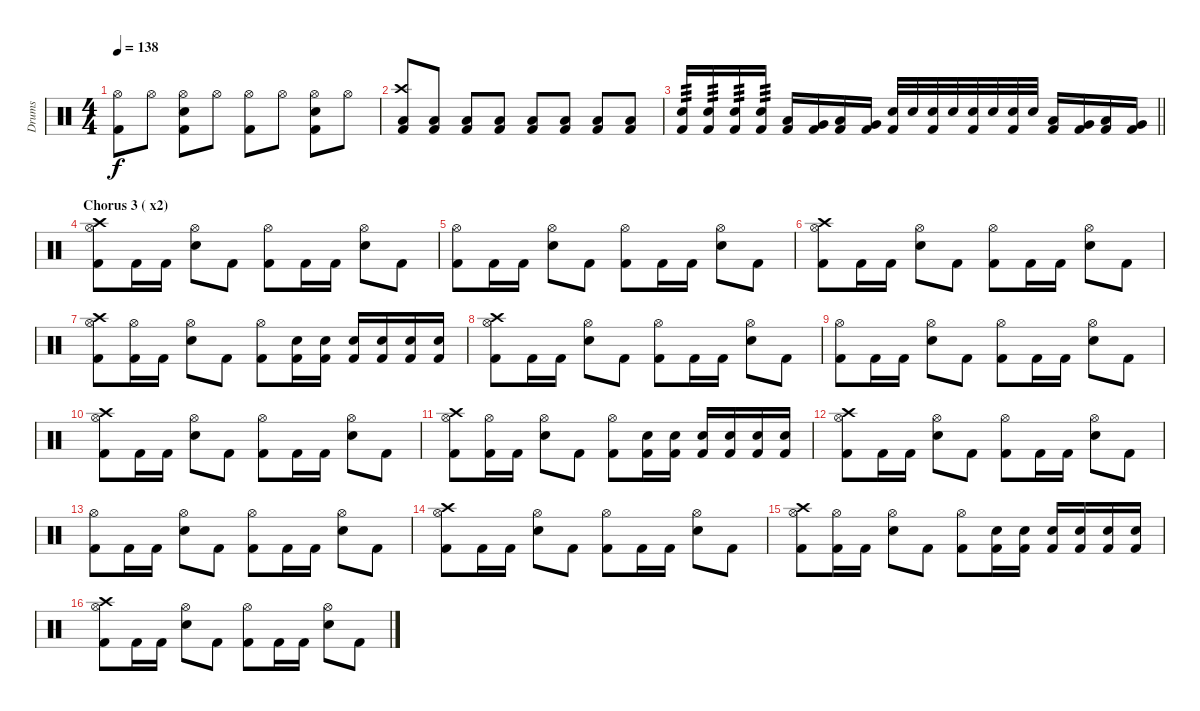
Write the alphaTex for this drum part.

\track ("Drums" "Drums") {instrument percussion}
\staff {score}
\articulation defaults
\ts (4 4)
\tempo 138
\clef neutral
\ks c
("Hi-Hat (open)" "Kick (hit) 2").8{dy f} "Hi-Hat (open)".8 ("Electric Snare (hit)" "Hi-Hat (open)" "Kick (hit) 2").8 "Hi-Hat (open)".8 ("Hi-Hat (open)" "Kick (hit) 2").8 "Hi-Hat (open)".8 ("Electric Snare (hit)" "Hi-Hat (open)" "Kick (hit) 2").8 "Hi-Hat (open)".8 |
("Crash high (hit)" "Low Floor Tom (hit)" "Kick (hit) 2").8 ("Low Floor Tom (hit)" "Kick (hit) 2").8 ("Low Floor Tom (hit)" "Kick (hit) 2").8 ("Low Floor Tom (hit)" "Kick (hit) 2").8 ("Low Floor Tom (hit)" "Kick (hit) 2").8 ("Low Floor Tom (hit)" "Kick (hit) 2").8 ("Low Floor Tom (hit)" "Kick (hit) 2").8 ("Low Floor Tom (hit)" "Kick (hit) 2").8 |
\barLineRight lightlight
("Electric Snare (hit)" "Kick (hit) 2").16{tp 3} ("Electric Snare (hit)" "Kick (hit) 2").16{tp 3} ("Electric Snare (hit)" "Kick (hit) 2").16{tp 3} ("Electric Snare (hit)" "Kick (hit) 2").16{tp 3} ("Low Floor Tom (hit)" "Kick (hit) 2").16 ("Very Low Tom (hit)" "Kick (hit) 2").16 ("Low Tom (hit)" "Kick (hit) 2").16 ("Very Low Tom (hit)" "Kick (hit) 2").16 ("Electric Snare (hit)" "Kick (hit) 2").32 "Electric Snare (hit)".32 ("Electric Snare (hit)" "Kick (hit) 2").32 "Electric Snare (hit)".32 ("Electric Snare (hit)" "Kick (hit) 2").32 "Electric Snare (hit)".32 ("Electric Snare (hit)" "Kick (hit) 2").32 "Electric Snare (hit)".32 ("Low Floor Tom (hit)" "Kick (hit) 2").16 ("Very Low Tom (hit)" "Kick (hit) 2").16 ("Low Tom (hit)" "Kick (hit) 2").16 ("Very Low Tom (hit)" "Kick (hit) 2").16 |
\section ("" "Chorus 3 ( x2)")
("Crash high (hit)" "Hi-Hat (open)" "Kick (hit) 2").8 "Kick (hit) 2".16 "Kick (hit) 2".16 ("Hi-Hat (open)" "Electric Snare (hit)").8 "Kick (hit) 2".8 ("Hi-Hat (open)" "Kick (hit) 2").8 "Kick (hit) 2".16 "Kick (hit) 2".16 ("Hi-Hat (open)" "Electric Snare (hit)").8 "Kick (hit) 2".8 |
("Hi-Hat (open)" "Kick (hit) 2").8 "Kick (hit) 2".16 "Kick (hit) 2".16 ("Hi-Hat (open)" "Electric Snare (hit)").8 "Kick (hit) 2".8 ("Hi-Hat (open)" "Kick (hit) 2").8 "Kick (hit) 2".16 "Kick (hit) 2".16 ("Hi-Hat (open)" "Electric Snare (hit)").8 "Kick (hit) 2".8 |
("Crash high (hit)" "Hi-Hat (open)" "Kick (hit) 2").8 "Kick (hit) 2".16 "Kick (hit) 2".16 ("Hi-Hat (open)" "Electric Snare (hit)").8 "Kick (hit) 2".8 ("Hi-Hat (open)" "Kick (hit) 2").8 "Kick (hit) 2".16 "Kick (hit) 2".16 ("Hi-Hat (open)" "Electric Snare (hit)").8 "Kick (hit) 2".8 |
("Crash high (hit)" "Hi-Hat (open)" "Kick (hit) 2").8 ("Hi-Hat (open)" "Kick (hit) 2").16 "Kick (hit) 2".16 ("Hi-Hat (open)" "Electric Snare (hit)").8 "Kick (hit) 2".8 ("Hi-Hat (open)" "Kick (hit) 2").8 ("Electric Snare (hit)" "Kick (hit) 2").16 ("Electric Snare (hit)" "Kick (hit) 2").16 ("Electric Snare (hit)" "Kick (hit) 2").16 ("Electric Snare (hit)" "Kick (hit) 2").16 ("Electric Snare (hit)" "Kick (hit) 2").16 ("Electric Snare (hit)" "Kick (hit) 2").16 |
("Crash high (hit)" "Hi-Hat (open)" "Kick (hit) 2").8 "Kick (hit) 2".16 "Kick (hit) 2".16 ("Hi-Hat (open)" "Electric Snare (hit)").8 "Kick (hit) 2".8 ("Hi-Hat (open)" "Kick (hit) 2").8 "Kick (hit) 2".16 "Kick (hit) 2".16 ("Hi-Hat (open)" "Electric Snare (hit)").8 "Kick (hit) 2".8 |
("Hi-Hat (open)" "Kick (hit) 2").8 "Kick (hit) 2".16 "Kick (hit) 2".16 ("Hi-Hat (open)" "Electric Snare (hit)").8 "Kick (hit) 2".8 ("Hi-Hat (open)" "Kick (hit) 2").8 "Kick (hit) 2".16 "Kick (hit) 2".16 ("Hi-Hat (open)" "Electric Snare (hit)").8 "Kick (hit) 2".8 |
("Crash high (hit)" "Hi-Hat (open)" "Kick (hit) 2").8 "Kick (hit) 2".16 "Kick (hit) 2".16 ("Hi-Hat (open)" "Electric Snare (hit)").8 "Kick (hit) 2".8 ("Hi-Hat (open)" "Kick (hit) 2").8 "Kick (hit) 2".16 "Kick (hit) 2".16 ("Hi-Hat (open)" "Electric Snare (hit)").8 "Kick (hit) 2".8 |
("Crash high (hit)" "Hi-Hat (open)" "Kick (hit) 2").8 ("Hi-Hat (open)" "Kick (hit) 2").16 "Kick (hit) 2".16 ("Hi-Hat (open)" "Electric Snare (hit)").8 "Kick (hit) 2".8 ("Hi-Hat (open)" "Kick (hit) 2").8 ("Electric Snare (hit)" "Kick (hit) 2").16 ("Electric Snare (hit)" "Kick (hit) 2").16 ("Electric Snare (hit)" "Kick (hit) 2").16 ("Electric Snare (hit)" "Kick (hit) 2").16 ("Electric Snare (hit)" "Kick (hit) 2").16 ("Electric Snare (hit)" "Kick (hit) 2").16 |
("Crash high (hit)" "Hi-Hat (open)" "Kick (hit) 2").8 "Kick (hit) 2".16 "Kick (hit) 2".16 ("Hi-Hat (open)" "Electric Snare (hit)").8 "Kick (hit) 2".8 ("Hi-Hat (open)" "Kick (hit) 2").8 "Kick (hit) 2".16 "Kick (hit) 2".16 ("Hi-Hat (open)" "Electric Snare (hit)").8 "Kick (hit) 2".8 |
("Hi-Hat (open)" "Kick (hit) 2").8 "Kick (hit) 2".16 "Kick (hit) 2".16 ("Hi-Hat (open)" "Electric Snare (hit)").8 "Kick (hit) 2".8 ("Hi-Hat (open)" "Kick (hit) 2").8 "Kick (hit) 2".16 "Kick (hit) 2".16 ("Hi-Hat (open)" "Electric Snare (hit)").8 "Kick (hit) 2".8 |
("Crash high (hit)" "Hi-Hat (open)" "Kick (hit) 2").8 "Kick (hit) 2".16 "Kick (hit) 2".16 ("Hi-Hat (open)" "Electric Snare (hit)").8 "Kick (hit) 2".8 ("Hi-Hat (open)" "Kick (hit) 2").8 "Kick (hit) 2".16 "Kick (hit) 2".16 ("Hi-Hat (open)" "Electric Snare (hit)").8 "Kick (hit) 2".8 |
("Crash high (hit)" "Hi-Hat (open)" "Kick (hit) 2").8 ("Hi-Hat (open)" "Kick (hit) 2").16 "Kick (hit) 2".16 ("Hi-Hat (open)" "Electric Snare (hit)").8 "Kick (hit) 2".8 ("Hi-Hat (open)" "Kick (hit) 2").8 ("Electric Snare (hit)" "Kick (hit) 2").16 ("Electric Snare (hit)" "Kick (hit) 2").16 ("Electric Snare (hit)" "Kick (hit) 2").16 ("Electric Snare (hit)" "Kick (hit) 2").16 ("Electric Snare (hit)" "Kick (hit) 2").16 ("Electric Snare (hit)" "Kick (hit) 2").16 |
("Crash high (hit)" "Hi-Hat (open)" "Kick (hit) 2").8 "Kick (hit) 2".16 "Kick (hit) 2".16 ("Hi-Hat (open)" "Electric Snare (hit)").8 "Kick (hit) 2".8 ("Hi-Hat (open)" "Kick (hit) 2").8 "Kick (hit) 2".16 "Kick (hit) 2".16 ("Hi-Hat (open)" "Electric Snare (hit)").8 "Kick (hit) 2".8
